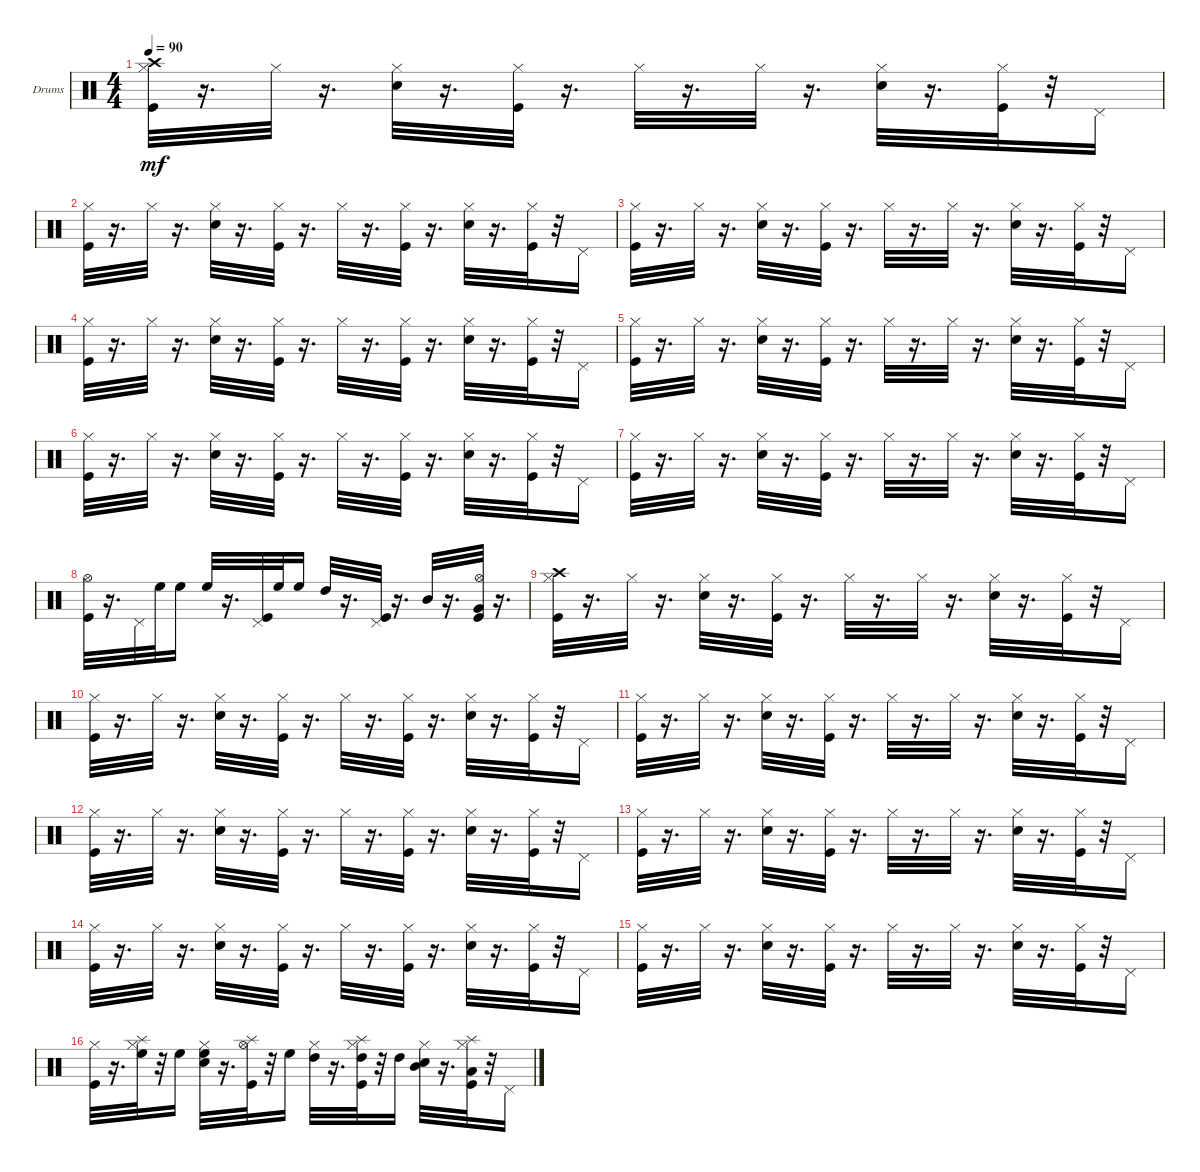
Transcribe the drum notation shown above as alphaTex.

\bracketExtendMode groupsimilarinstruments
\firstSystemTrackNameOrientation horizontal
\otherSystemsTrackNameOrientation horizontal
\track ("Drumkit" "Drums") {instrument percussion}
\staff {score}
\articulation defaults
\ts (4 4)
\tempo 90
\clef neutral
\ks c
("Crash high (hit)" "Kick (hit)" "Hi-Hat (closed)").32{dy mf} r.16{d} "Hi-Hat (closed)".32 r.16{d} ("Snare (hit) 2" "Hi-Hat (closed)").32 r.16{d} ("Kick (hit)" "Hi-Hat (closed)").32 r.16{d} "Hi-Hat (closed)".32 r.16{d} "Hi-Hat (closed)".32 r.16{d} ("Snare (hit) 2" "Hi-Hat (closed)").32 r.16{d} ("Kick (hit)" "Hi-Hat (closed)").32 r.32 "Pedal Hi-Hat (hit)".16 |
("Kick (hit)" "Hi-Hat (closed)").32 r.16{d} "Hi-Hat (closed)".32 r.16{d} ("Snare (hit) 2" "Hi-Hat (closed)").32 r.16{d} ("Kick (hit)" "Hi-Hat (closed)").32 r.16{d} "Hi-Hat (closed)".32 r.16{d} ("Kick (hit)" "Hi-Hat (closed)").32 r.16{d} ("Snare (hit) 2" "Hi-Hat (closed)").32 r.16{d} ("Kick (hit)" "Hi-Hat (closed)").32 r.32 "Pedal Hi-Hat (hit)".16 |
("Kick (hit)" "Hi-Hat (closed)").32 r.16{d} "Hi-Hat (closed)".32 r.16{d} ("Snare (hit) 2" "Hi-Hat (closed)").32 r.16{d} ("Kick (hit)" "Hi-Hat (closed)").32 r.16{d} "Hi-Hat (closed)".32 r.16{d} "Hi-Hat (closed)".32 r.16{d} ("Snare (hit) 2" "Hi-Hat (closed)").32 r.16{d} ("Kick (hit)" "Hi-Hat (closed)").32 r.32 "Pedal Hi-Hat (hit)".16 |
("Kick (hit)" "Hi-Hat (closed)").32 r.16{d} "Hi-Hat (closed)".32 r.16{d} ("Snare (hit) 2" "Hi-Hat (closed)").32 r.16{d} ("Kick (hit)" "Hi-Hat (closed)").32 r.16{d} "Hi-Hat (closed)".32 r.16{d} ("Kick (hit)" "Hi-Hat (closed)").32 r.16{d} ("Snare (hit) 2" "Hi-Hat (closed)").32 r.16{d} ("Kick (hit)" "Hi-Hat (closed)").32 r.32 "Pedal Hi-Hat (hit)".16 |
("Kick (hit)" "Hi-Hat (closed)").32 r.16{d} "Hi-Hat (closed)".32 r.16{d} ("Snare (hit) 2" "Hi-Hat (closed)").32 r.16{d} ("Kick (hit)" "Hi-Hat (closed)").32 r.16{d} "Hi-Hat (closed)".32 r.16{d} "Hi-Hat (closed)".32 r.16{d} ("Snare (hit) 2" "Hi-Hat (closed)").32 r.16{d} ("Kick (hit)" "Hi-Hat (closed)").32 r.32 "Pedal Hi-Hat (hit)".16 |
("Kick (hit)" "Hi-Hat (closed)").32 r.16{d} "Hi-Hat (closed)".32 r.16{d} ("Snare (hit) 2" "Hi-Hat (closed)").32 r.16{d} ("Kick (hit)" "Hi-Hat (closed)").32 r.16{d} "Hi-Hat (closed)".32 r.16{d} ("Kick (hit)" "Hi-Hat (closed)").32 r.16{d} ("Snare (hit) 2" "Hi-Hat (closed)").32 r.16{d} ("Kick (hit)" "Hi-Hat (closed)").32 r.32 "Pedal Hi-Hat (hit)".16 |
("Kick (hit)" "Hi-Hat (closed)").32 r.16{d} "Hi-Hat (closed)".32 r.16{d} ("Snare (hit) 2" "Hi-Hat (closed)").32 r.16{d} ("Kick (hit)" "Hi-Hat (closed)").32 r.16{d} "Hi-Hat (closed)".32 r.16{d} "Hi-Hat (closed)".32 r.16{d} ("Snare (hit) 2" "Hi-Hat (closed)").32 r.16{d} ("Kick (hit)" "Hi-Hat (closed)").32 r.32 "Pedal Hi-Hat (hit)".16 |
("Hi-Hat (open)" "Kick (hit)").32 r.16{d} "Pedal Hi-Hat (hit)".32 "High Floor Tom (hit)".32 "High Floor Tom (hit)".16 "High Floor Tom (hit)".32 r.16{d} ("Pedal Hi-Hat (hit)" "Kick (hit)").32 "High Floor Tom (hit)".32 "High Floor Tom (hit)".16 "High Tom (hit)".32 r.16{d} ("Pedal Hi-Hat (hit)" "Kick (hit)").32 r.16{d} "Mid Tom (hit)".32 r.16{d} ("Very Low Tom (hit)" "Hi-Hat (open)" "Kick (hit)").32 r.16{d} |
("Crash high (hit)" "Hi-Hat (closed)" "Kick (hit)").32 r.16{d} "Hi-Hat (closed)".32 r.16{d} ("Snare (hit) 2" "Hi-Hat (closed)").32 r.16{d} ("Hi-Hat (closed)" "Kick (hit)").32 r.16{d} "Hi-Hat (closed)".32 r.16{d} "Hi-Hat (closed)".32 r.16{d} ("Snare (hit) 2" "Hi-Hat (closed)").32 r.16{d} ("Hi-Hat (closed)" "Kick (hit)").32 r.32 "Pedal Hi-Hat (hit)".16 |
("Kick (hit)" "Hi-Hat (closed)").32 r.16{d} "Hi-Hat (closed)".32 r.16{d} ("Snare (hit) 2" "Hi-Hat (closed)").32 r.16{d} ("Kick (hit)" "Hi-Hat (closed)").32 r.16{d} "Hi-Hat (closed)".32 r.16{d} ("Kick (hit)" "Hi-Hat (closed)").32 r.16{d} ("Snare (hit) 2" "Hi-Hat (closed)").32 r.16{d} ("Kick (hit)" "Hi-Hat (closed)").32 r.32 "Pedal Hi-Hat (hit)".16 |
("Kick (hit)" "Hi-Hat (closed)").32 r.16{d} "Hi-Hat (closed)".32 r.16{d} ("Snare (hit) 2" "Hi-Hat (closed)").32 r.16{d} ("Kick (hit)" "Hi-Hat (closed)").32 r.16{d} "Hi-Hat (closed)".32 r.16{d} "Hi-Hat (closed)".32 r.16{d} ("Snare (hit) 2" "Hi-Hat (closed)").32 r.16{d} ("Kick (hit)" "Hi-Hat (closed)").32 r.32 "Pedal Hi-Hat (hit)".16 |
("Kick (hit)" "Hi-Hat (closed)").32 r.16{d} "Hi-Hat (closed)".32 r.16{d} ("Snare (hit) 2" "Hi-Hat (closed)").32 r.16{d} ("Kick (hit)" "Hi-Hat (closed)").32 r.16{d} "Hi-Hat (closed)".32 r.16{d} ("Kick (hit)" "Hi-Hat (closed)").32 r.16{d} ("Snare (hit) 2" "Hi-Hat (closed)").32 r.16{d} ("Kick (hit)" "Hi-Hat (closed)").32 r.32 "Pedal Hi-Hat (hit)".16 |
("Kick (hit)" "Hi-Hat (closed)").32 r.16{d} "Hi-Hat (closed)".32 r.16{d} ("Snare (hit) 2" "Hi-Hat (closed)").32 r.16{d} ("Kick (hit)" "Hi-Hat (closed)").32 r.16{d} "Hi-Hat (closed)".32 r.16{d} "Hi-Hat (closed)".32 r.16{d} ("Snare (hit) 2" "Hi-Hat (closed)").32 r.16{d} ("Kick (hit)" "Hi-Hat (closed)").32 r.32 "Pedal Hi-Hat (hit)".16 |
("Kick (hit)" "Hi-Hat (closed)").32 r.16{d} "Hi-Hat (closed)".32 r.16{d} ("Snare (hit) 2" "Hi-Hat (closed)").32 r.16{d} ("Kick (hit)" "Hi-Hat (closed)").32 r.16{d} "Hi-Hat (closed)".32 r.16{d} ("Kick (hit)" "Hi-Hat (closed)").32 r.16{d} ("Snare (hit) 2" "Hi-Hat (closed)").32 r.16{d} ("Kick (hit)" "Hi-Hat (closed)").32 r.32 "Pedal Hi-Hat (hit)".16 |
("Kick (hit)" "Hi-Hat (closed)").32 r.16{d} "Hi-Hat (closed)".32 r.16{d} ("Snare (hit) 2" "Hi-Hat (closed)").32 r.16{d} ("Kick (hit)" "Hi-Hat (closed)").32 r.16{d} "Hi-Hat (closed)".32 r.16{d} "Hi-Hat (closed)".32 r.16{d} ("Snare (hit) 2" "Hi-Hat (closed)").32 r.16{d} ("Kick (hit)" "Hi-Hat (closed)").32 r.32 "Pedal Hi-Hat (hit)".16 |
("Kick (hit)" "Hi-Hat (closed)").32 r.16{d} ("High Floor Tom (hit)" "Splash (hit)" "Hi-Hat (closed)").32 r.32 "High Floor Tom (hit)".16 ("High Floor Tom (hit)" "Snare (hit) 2" "Hi-Hat (closed)").32 r.16{d} ("Splash (hit)" "Kick (hit)" "Hi-Hat (open)").32 r.32 "High Floor Tom (hit)".16 ("High Tom (hit)" "Hi-Hat (closed)").32 r.16{d} ("High Tom (hit)" "Splash (hit)" "Kick (hit)" "Hi-Hat (closed)").32 r.32 "High Tom (hit)".16 ("Mid Tom (hit)" "Snare (hit) 2" "Hi-Hat (closed)").32 r.16{d} ("Low Tom (hit)" "Splash (hit)" "Kick (hit)" "Hi-Hat (closed)").32 r.32 "Pedal Hi-Hat (hit)".16
